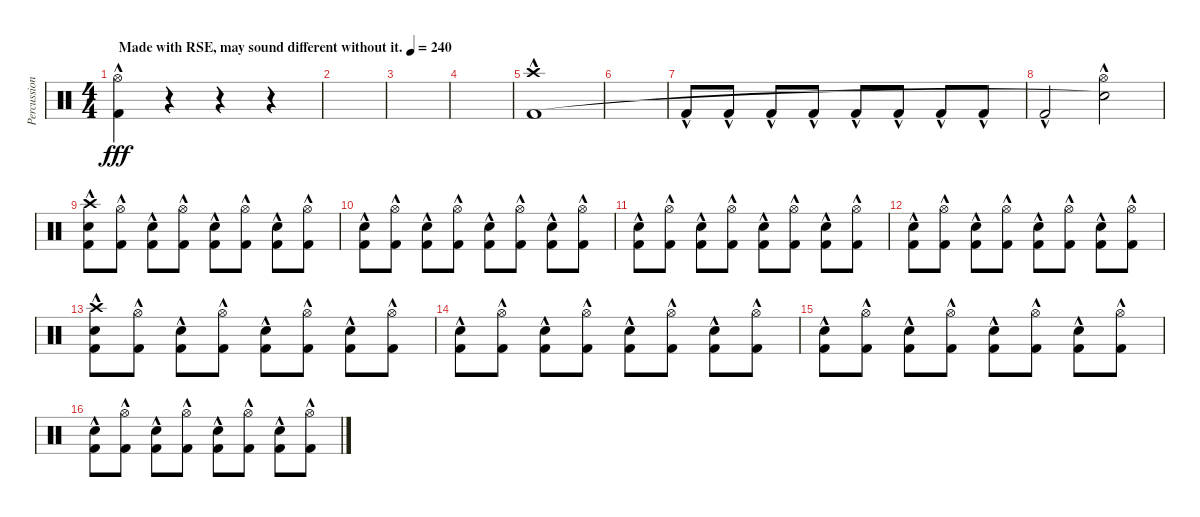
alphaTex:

\track ("Percussion" "Percussion") {instrument percussion}
\staff {score}
\articulation defaults
\ts (4 4)
\tempo (240 "Made with RSE, may sound different without it.")
\clef neutral
\ks c
("Hi-Hat (open)"{hac} "Kick (hit) 2"{hac}).4{dy fff} r.4 r.4 r.4 |
|
|
|
("Crash high (hit)"{hac} "Kick (hit) 2"{hac}).1 |
|
"Kick (hit) 2"{hac}.8 "Kick (hit) 2"{hac}.8 "Kick (hit) 2"{hac}.8 "Kick (hit) 2"{hac}.8 "Kick (hit) 2"{hac}.8 "Kick (hit) 2"{hac}.8 "Kick (hit) 2"{hac}.8 "Kick (hit) 2"{hac}.8 |
"Kick (hit) 2"{hac}.2 ("Hi-Hat (open)"{hac} "Snare (hit)"{t}).2 |
("Crash high (hit)"{hac} "Electric Snare (hit)"{hac} "Kick (hit) 2"{hac}).8 ("Hi-Hat (open)"{hac} "Kick (hit) 2"{hac}).8 ("Electric Snare (hit)"{hac} "Kick (hit) 2"{hac}).8 ("Hi-Hat (open)"{hac} "Kick (hit) 2"{hac}).8 ("Electric Snare (hit)"{hac} "Kick (hit) 2"{hac}).8 ("Hi-Hat (open)"{hac} "Kick (hit) 2"{hac}).8 ("Electric Snare (hit)"{hac} "Kick (hit) 2"{hac}).8 ("Hi-Hat (open)"{hac} "Kick (hit) 2"{hac}).8 |
("Electric Snare (hit)"{hac} "Kick (hit) 2"{hac}).8 ("Hi-Hat (open)"{hac} "Kick (hit) 2"{hac}).8 ("Electric Snare (hit)"{hac} "Kick (hit) 2"{hac}).8 ("Hi-Hat (open)"{hac} "Kick (hit) 2"{hac}).8 ("Electric Snare (hit)"{hac} "Kick (hit) 2"{hac}).8 ("Hi-Hat (open)"{hac} "Kick (hit) 2"{hac}).8 ("Electric Snare (hit)"{hac} "Kick (hit) 2"{hac}).8 ("Hi-Hat (open)"{hac} "Kick (hit) 2"{hac}).8 |
("Electric Snare (hit)"{hac} "Kick (hit) 2"{hac}).8 ("Hi-Hat (open)"{hac} "Kick (hit) 2"{hac}).8 ("Electric Snare (hit)"{hac} "Kick (hit) 2"{hac}).8 ("Hi-Hat (open)"{hac} "Kick (hit) 2"{hac}).8 ("Electric Snare (hit)"{hac} "Kick (hit) 2"{hac}).8 ("Hi-Hat (open)"{hac} "Kick (hit) 2"{hac}).8 ("Electric Snare (hit)"{hac} "Kick (hit) 2"{hac}).8 ("Hi-Hat (open)"{hac} "Kick (hit) 2"{hac}).8 |
("Electric Snare (hit)"{hac} "Kick (hit) 2"{hac}).8 ("Hi-Hat (open)"{hac} "Kick (hit) 2"{hac}).8 ("Electric Snare (hit)"{hac} "Kick (hit) 2"{hac}).8 ("Hi-Hat (open)"{hac} "Kick (hit) 2"{hac}).8 ("Electric Snare (hit)"{hac} "Kick (hit) 2"{hac}).8 ("Hi-Hat (open)"{hac} "Kick (hit) 2"{hac}).8 ("Electric Snare (hit)"{hac} "Kick (hit) 2"{hac}).8 ("Hi-Hat (open)"{hac} "Kick (hit) 2"{hac}).8 |
("Crash high (hit)"{hac} "Electric Snare (hit)"{hac} "Kick (hit) 2"{hac}).8 ("Hi-Hat (open)"{hac} "Kick (hit) 2"{hac}).8 ("Electric Snare (hit)"{hac} "Kick (hit) 2"{hac}).8 ("Hi-Hat (open)"{hac} "Kick (hit) 2"{hac}).8 ("Electric Snare (hit)"{hac} "Kick (hit) 2"{hac}).8 ("Hi-Hat (open)"{hac} "Kick (hit) 2"{hac}).8 ("Electric Snare (hit)"{hac} "Kick (hit) 2"{hac}).8 ("Hi-Hat (open)"{hac} "Kick (hit) 2"{hac}).8 |
("Electric Snare (hit)"{hac} "Kick (hit) 2"{hac}).8 ("Hi-Hat (open)"{hac} "Kick (hit) 2"{hac}).8 ("Electric Snare (hit)"{hac} "Kick (hit) 2"{hac}).8 ("Hi-Hat (open)"{hac} "Kick (hit) 2"{hac}).8 ("Electric Snare (hit)"{hac} "Kick (hit) 2"{hac}).8 ("Hi-Hat (open)"{hac} "Kick (hit) 2"{hac}).8 ("Electric Snare (hit)"{hac} "Kick (hit) 2"{hac}).8 ("Hi-Hat (open)"{hac} "Kick (hit) 2"{hac}).8 |
("Electric Snare (hit)"{hac} "Kick (hit) 2"{hac}).8 ("Hi-Hat (open)"{hac} "Kick (hit) 2"{hac}).8 ("Electric Snare (hit)"{hac} "Kick (hit) 2"{hac}).8 ("Hi-Hat (open)"{hac} "Kick (hit) 2"{hac}).8 ("Electric Snare (hit)"{hac} "Kick (hit) 2"{hac}).8 ("Hi-Hat (open)"{hac} "Kick (hit) 2"{hac}).8 ("Electric Snare (hit)"{hac} "Kick (hit) 2"{hac}).8 ("Hi-Hat (open)"{hac} "Kick (hit) 2"{hac}).8 |
("Electric Snare (hit)"{hac} "Kick (hit) 2"{hac}).8 ("Hi-Hat (open)"{hac} "Kick (hit) 2"{hac}).8 ("Electric Snare (hit)"{hac} "Kick (hit) 2"{hac}).8 ("Hi-Hat (open)"{hac} "Kick (hit) 2"{hac}).8 ("Electric Snare (hit)"{hac} "Kick (hit) 2"{hac}).8 ("Hi-Hat (open)"{hac} "Kick (hit) 2"{hac}).8 ("Electric Snare (hit)"{hac} "Kick (hit) 2"{hac}).8 ("Hi-Hat (open)"{hac} "Kick (hit) 2"{hac}).8
